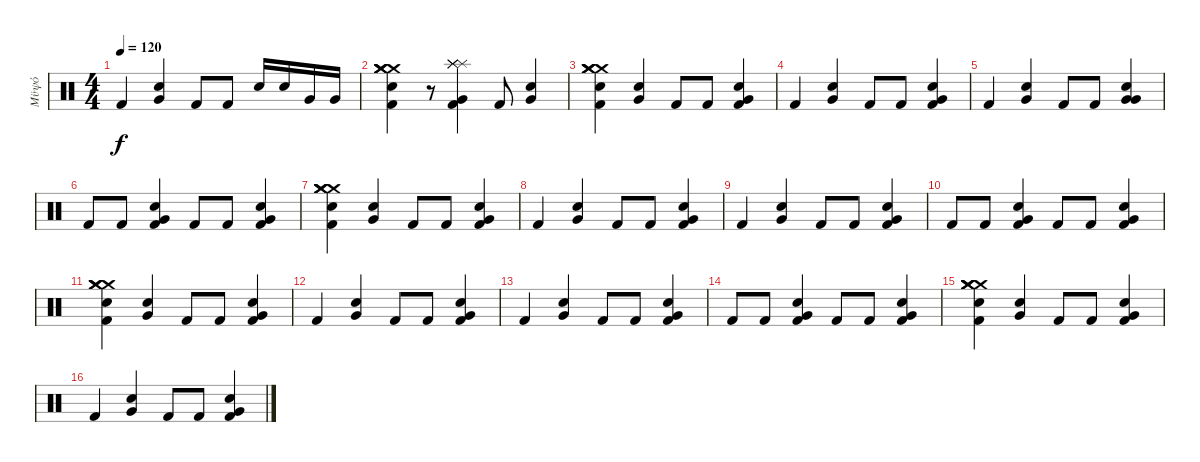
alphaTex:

\track ("Μϋψό" "Μϋψό") {instrument percussion}
\staff {score}
\articulation defaults
\ts (4 4)
\tempo 120
\clef neutral
\ks c "Kick (hit) 2".4{dy f}
("Electric Snare (hit)" "Very Low Tom (hit)").4 "Kick (hit) 2".8 "Kick (hit) 2".8 "Electric Snare (hit)".16 "Electric Snare (hit)".16 "Very Low Tom (hit)".16 "Very Low Tom (hit)".16 |
("Kick (hit) 2" "Electric Snare (hit)" "Crash medium (hit)" "Crash medium (hit)" "Crash medium (hit)" "Crash medium (hit)").4 r.8 ("Kick (hit) 2" "Very Low Tom (hit)" "Splash (hit)" "Splash (hit)" "Splash (hit)" "Splash (hit)").4 "Kick (hit) 2".8 ("Electric Snare (hit)" "Very Low Tom (hit)").4 |
("Kick (hit) 2" "Electric Snare (hit)" "Crash medium (hit)" "Crash medium (hit)" "Crash medium (hit)" "Crash medium (hit)").4 ("Electric Snare (hit)" "Very Low Tom (hit)").4 "Kick (hit) 2".8 "Kick (hit) 2".8 ("Electric Snare (hit)" "Kick (hit) 2" "Very Low Tom (hit)").4 |
"Kick (hit) 2".4 ("Electric Snare (hit)" "Very Low Tom (hit)").4 "Kick (hit) 2".8 "Kick (hit) 2".8 ("Electric Snare (hit)" "Kick (hit) 2" "Very Low Tom (hit)").4 |
"Kick (hit) 2".4 ("Electric Snare (hit)" "Very Low Tom (hit)").4 "Kick (hit) 2".8 "Kick (hit) 2".8 ("Electric Snare (hit)" "Very Low Tom (hit)" "Very Low Tom (hit)").4 |
"Kick (hit) 2".8 "Kick (hit) 2".8 ("Electric Snare (hit)" "Kick (hit) 2" "Very Low Tom (hit)").4 "Kick (hit) 2".8 "Kick (hit) 2".8 ("Electric Snare (hit)" "Kick (hit) 2" "Very Low Tom (hit)").4 |
("Kick (hit) 2" "Electric Snare (hit)" "Crash medium (hit)" "Crash medium (hit)" "Crash medium (hit)" "Crash medium (hit)").4 ("Electric Snare (hit)" "Very Low Tom (hit)").4 "Kick (hit) 2".8 "Kick (hit) 2".8 ("Electric Snare (hit)" "Kick (hit) 2" "Very Low Tom (hit)").4 |
"Kick (hit) 2".4 ("Electric Snare (hit)" "Very Low Tom (hit)").4 "Kick (hit) 2".8 "Kick (hit) 2".8 ("Electric Snare (hit)" "Kick (hit) 2" "Very Low Tom (hit)").4 |
"Kick (hit) 2".4 ("Electric Snare (hit)" "Very Low Tom (hit)").4 "Kick (hit) 2".8 "Kick (hit) 2".8 ("Electric Snare (hit)" "Kick (hit) 2" "Very Low Tom (hit)").4 |
"Kick (hit) 2".8 "Kick (hit) 2".8 ("Electric Snare (hit)" "Kick (hit) 2" "Very Low Tom (hit)").4 "Kick (hit) 2".8 "Kick (hit) 2".8 ("Electric Snare (hit)" "Kick (hit) 2" "Very Low Tom (hit)").4 |
("Kick (hit) 2" "Electric Snare (hit)" "Crash medium (hit)" "Crash medium (hit)" "Crash medium (hit)" "Crash medium (hit)").4 ("Electric Snare (hit)" "Very Low Tom (hit)").4 "Kick (hit) 2".8 "Kick (hit) 2".8 ("Electric Snare (hit)" "Kick (hit) 2" "Very Low Tom (hit)").4 |
"Kick (hit) 2".4 ("Electric Snare (hit)" "Very Low Tom (hit)").4 "Kick (hit) 2".8 "Kick (hit) 2".8 ("Electric Snare (hit)" "Kick (hit) 2" "Very Low Tom (hit)").4 |
"Kick (hit) 2".4 ("Electric Snare (hit)" "Very Low Tom (hit)").4 "Kick (hit) 2".8 "Kick (hit) 2".8 ("Electric Snare (hit)" "Kick (hit) 2" "Very Low Tom (hit)").4 |
"Kick (hit) 2".8 "Kick (hit) 2".8 ("Electric Snare (hit)" "Kick (hit) 2" "Very Low Tom (hit)").4 "Kick (hit) 2".8 "Kick (hit) 2".8 ("Electric Snare (hit)" "Kick (hit) 2" "Very Low Tom (hit)").4 |
("Kick (hit) 2" "Electric Snare (hit)" "Crash medium (hit)" "Crash medium (hit)" "Crash medium (hit)" "Crash medium (hit)").4 ("Electric Snare (hit)" "Very Low Tom (hit)").4 "Kick (hit) 2".8 "Kick (hit) 2".8 ("Electric Snare (hit)" "Kick (hit) 2" "Very Low Tom (hit)").4 |
"Kick (hit) 2".4 ("Electric Snare (hit)" "Very Low Tom (hit)").4 "Kick (hit) 2".8 "Kick (hit) 2".8 ("Electric Snare (hit)" "Kick (hit) 2" "Very Low Tom (hit)").4
